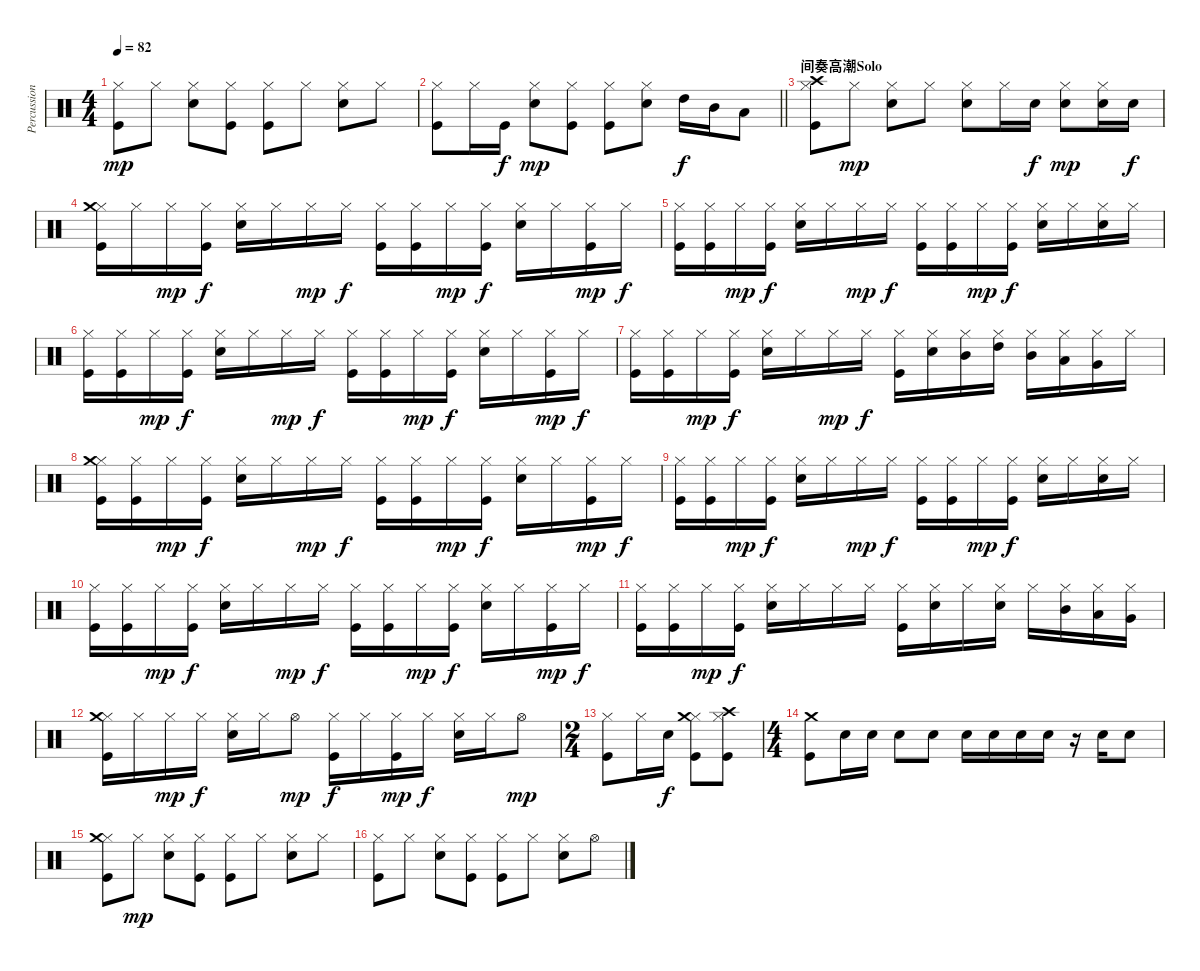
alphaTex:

\track ("Percussion" "Percussion") {instrument percussion}
\staff {score}
\articulation defaults
\ts (4 4)
\tempo 82
\clef neutral
\ks c
("Kick (hit)" "Hi-Hat (closed)").8{dy mp} "Hi-Hat (closed)".8 ("Electric Snare (hit)" "Hi-Hat (closed)").8 ("Kick (hit)" "Hi-Hat (closed)").8 ("Kick (hit)" "Hi-Hat (closed)").8 "Hi-Hat (closed)".8 ("Electric Snare (hit)" "Hi-Hat (closed)").8 "Hi-Hat (closed)".8 |
\barLineRight lightlight
("Kick (hit)" "Hi-Hat (closed)").8 "Hi-Hat (closed)".16 "Kick (hit)".16{dy f} ("Electric Snare (hit)" "Hi-Hat (closed)").8{dy mp} ("Kick (hit)" "Hi-Hat (closed)").8 ("Kick (hit)" "Hi-Hat (closed)").8 ("Electric Snare (hit)" "Hi-Hat (closed)").8 "High Tom (hit)".16{dy f} "Mid Tom (hit)".16 "Low Tom (hit)".8 |
\section ("" "间奏高潮Solo")
("Kick (hit)" "Hi-Hat (closed)" "Crash high (hit)").8 "Hi-Hat (closed)".8{dy mp} ("Electric Snare (hit)" "Hi-Hat (closed)").8 "Hi-Hat (closed)".8 ("Electric Snare (hit)" "Hi-Hat (closed)").8 "Hi-Hat (closed)".16 "Electric Snare (hit)".16{dy f} ("Electric Snare (hit)" "Hi-Hat (closed)").8{dy mp} ("Electric Snare (hit)" "Hi-Hat (closed)").16 "Electric Snare (hit)".16{dy f} |
("Kick (hit)" "Hi-Hat (closed)" "Crash medium (hit)").16 "Hi-Hat (closed)".16 "Hi-Hat (closed)".16{dy mp} ("Kick (hit)" "Hi-Hat (closed)").16{dy f} ("Electric Snare (hit)" "Hi-Hat (closed)").16 "Hi-Hat (closed)".16 "Hi-Hat (closed)".16{dy mp} "Hi-Hat (closed)".16{dy f} ("Kick (hit)" "Hi-Hat (closed)").16 ("Kick (hit)" "Hi-Hat (closed)").16 "Hi-Hat (closed)".16{dy mp} ("Kick (hit)" "Hi-Hat (closed)").16{dy f} ("Electric Snare (hit)" "Hi-Hat (closed)").16 "Hi-Hat (closed)".16 ("Kick (hit)" "Hi-Hat (closed)").16{dy mp} "Hi-Hat (closed)".16{dy f} |
("Kick (hit)" "Hi-Hat (closed)").16 ("Kick (hit)" "Hi-Hat (closed)").16 "Hi-Hat (closed)".16{dy mp} ("Kick (hit)" "Hi-Hat (closed)").16{dy f} ("Electric Snare (hit)" "Hi-Hat (closed)").16 "Hi-Hat (closed)".16 "Hi-Hat (closed)".16{dy mp} "Hi-Hat (closed)".16{dy f} ("Kick (hit)" "Hi-Hat (closed)").16 ("Kick (hit)" "Hi-Hat (closed)").16 "Hi-Hat (closed)".16{dy mp} ("Kick (hit)" "Hi-Hat (closed)").16{dy f} ("Electric Snare (hit)" "Hi-Hat (closed)").16 "Hi-Hat (closed)".16 ("Electric Snare (hit)" "Hi-Hat (closed)").16 "Hi-Hat (closed)".16 |
("Kick (hit)" "Hi-Hat (closed)").16 ("Kick (hit)" "Hi-Hat (closed)").16 "Hi-Hat (closed)".16{dy mp} ("Kick (hit)" "Hi-Hat (closed)").16{dy f} ("Electric Snare (hit)" "Hi-Hat (closed)").16 "Hi-Hat (closed)".16 "Hi-Hat (closed)".16{dy mp} "Hi-Hat (closed)".16{dy f} ("Kick (hit)" "Hi-Hat (closed)").16 ("Kick (hit)" "Hi-Hat (closed)").16 "Hi-Hat (closed)".16{dy mp} ("Kick (hit)" "Hi-Hat (closed)").16{dy f} ("Electric Snare (hit)" "Hi-Hat (closed)").16 "Hi-Hat (closed)".16 ("Kick (hit)" "Hi-Hat (closed)").16{dy mp} "Hi-Hat (closed)".16{dy f} |
("Kick (hit)" "Hi-Hat (closed)").16 ("Kick (hit)" "Hi-Hat (closed)").16 "Hi-Hat (closed)".16{dy mp} ("Kick (hit)" "Hi-Hat (closed)").16{dy f} ("Electric Snare (hit)" "Hi-Hat (closed)").16 "Hi-Hat (closed)".16 "Hi-Hat (closed)".16{dy mp} "Hi-Hat (closed)".16{dy f} ("Kick (hit)" "Hi-Hat (closed)").16 ("Electric Snare (hit)" "Hi-Hat (closed)").16 ("Mid Tom (hit)" "Hi-Hat (closed)").16 ("High Tom (hit)" "Hi-Hat (closed)").16 ("Mid Tom (hit)" "Hi-Hat (closed)").16 ("Low Tom (hit)" "Hi-Hat (closed)").16 ("Very Low Tom (hit)" "Hi-Hat (closed)").16 "Hi-Hat (closed)".16 |
("Kick (hit)" "Hi-Hat (closed)" "Crash medium (hit)").16 ("Kick (hit)" "Hi-Hat (closed)").16 "Hi-Hat (closed)".16{dy mp} ("Kick (hit)" "Hi-Hat (closed)").16{dy f} ("Electric Snare (hit)" "Hi-Hat (closed)").16 "Hi-Hat (closed)".16 "Hi-Hat (closed)".16{dy mp} "Hi-Hat (closed)".16{dy f} ("Kick (hit)" "Hi-Hat (closed)").16 ("Kick (hit)" "Hi-Hat (closed)").16 "Hi-Hat (closed)".16{dy mp} ("Kick (hit)" "Hi-Hat (closed)").16{dy f} ("Electric Snare (hit)" "Hi-Hat (closed)").16 "Hi-Hat (closed)".16 ("Kick (hit)" "Hi-Hat (closed)").16{dy mp} "Hi-Hat (closed)".16{dy f} |
("Kick (hit)" "Hi-Hat (closed)").16 ("Kick (hit)" "Hi-Hat (closed)").16 "Hi-Hat (closed)".16{dy mp} ("Kick (hit)" "Hi-Hat (closed)").16{dy f} ("Electric Snare (hit)" "Hi-Hat (closed)").16 "Hi-Hat (closed)".16 "Hi-Hat (closed)".16{dy mp} "Hi-Hat (closed)".16{dy f} ("Kick (hit)" "Hi-Hat (closed)").16 ("Kick (hit)" "Hi-Hat (closed)").16 "Hi-Hat (closed)".16{dy mp} ("Kick (hit)" "Hi-Hat (closed)").16{dy f} ("Electric Snare (hit)" "Hi-Hat (closed)").16 "Hi-Hat (closed)".16 ("Electric Snare (hit)" "Hi-Hat (closed)").16 "Hi-Hat (closed)".16 |
("Kick (hit)" "Hi-Hat (closed)").16 ("Kick (hit)" "Hi-Hat (closed)").16 "Hi-Hat (closed)".16{dy mp} ("Kick (hit)" "Hi-Hat (closed)").16{dy f} ("Electric Snare (hit)" "Hi-Hat (closed)").16 "Hi-Hat (closed)".16 "Hi-Hat (closed)".16{dy mp} "Hi-Hat (closed)".16{dy f} ("Kick (hit)" "Hi-Hat (closed)").16 ("Kick (hit)" "Hi-Hat (closed)").16 "Hi-Hat (closed)".16{dy mp} ("Kick (hit)" "Hi-Hat (closed)").16{dy f} ("Electric Snare (hit)" "Hi-Hat (closed)").16 "Hi-Hat (closed)".16 ("Kick (hit)" "Hi-Hat (closed)").16{dy mp} "Hi-Hat (closed)".16{dy f} |
("Kick (hit)" "Hi-Hat (closed)").16 ("Kick (hit)" "Hi-Hat (closed)").16 "Hi-Hat (closed)".16{dy mp} ("Kick (hit)" "Hi-Hat (closed)").16{dy f} ("Electric Snare (hit)" "Hi-Hat (closed)").16 "Hi-Hat (closed)".16 "Hi-Hat (closed)".16 "Hi-Hat (closed)".16 ("Kick (hit)" "Hi-Hat (closed)").16 ("Electric Snare (hit)" "Hi-Hat (closed)").16 "Hi-Hat (closed)".16 ("Electric Snare (hit)" "Hi-Hat (closed)").16 "Hi-Hat (closed)".16 ("Mid Tom (hit)" "Hi-Hat (closed)").16 ("Low Tom (hit)" "Hi-Hat (closed)").16 ("Very Low Tom (hit)" "Hi-Hat (closed)").16 |
("Kick (hit)" "Hi-Hat (closed)" "Crash medium (hit)").16 "Hi-Hat (closed)".16 "Hi-Hat (closed)".16{dy mp} "Hi-Hat (closed)".16{dy f} ("Electric Snare (hit)" "Hi-Hat (closed)").16 "Hi-Hat (closed)".16 "Hi-Hat (open)".8{dy mp} ("Kick (hit)" "Hi-Hat (closed)").16{dy f} "Hi-Hat (closed)".16 ("Kick (hit)" "Hi-Hat (closed)").16{dy mp} "Hi-Hat (closed)".16{dy f} ("Electric Snare (hit)" "Hi-Hat (closed)").16 "Hi-Hat (closed)".16 "Hi-Hat (open)".8{dy mp} |
\ts (2 4)
("Kick (hit)" "Hi-Hat (closed)").8 "Hi-Hat (closed)".16 "Electric Snare (hit)".16{dy f} ("Kick (hit)" "Hi-Hat (closed)" "Crash medium (hit)").8 ("Kick (hit)" "Hi-Hat (closed)" "Crash high (hit)").8 |
\ts (4 4)
("Kick (hit)" "Crash medium (hit)").8 "Electric Snare (hit)".16 "Electric Snare (hit)".16 "Electric Snare (hit)".8 "Electric Snare (hit)".8 "Electric Snare (hit)".16 "Electric Snare (hit)".16 "Electric Snare (hit)".16 "Electric Snare (hit)".16 r.16 "Electric Snare (hit)".16 "Electric Snare (hit)".8 |
("Kick (hit)" "Hi-Hat (closed)" "Crash medium (hit)").8 "Hi-Hat (closed)".8{dy mp} ("Electric Snare (hit)" "Hi-Hat (closed)").8 ("Kick (hit)" "Hi-Hat (closed)").8 ("Kick (hit)" "Hi-Hat (closed)").8 "Hi-Hat (closed)".8 ("Electric Snare (hit)" "Hi-Hat (closed)").8 "Hi-Hat (closed)".8 |
("Kick (hit)" "Hi-Hat (closed)").8 "Hi-Hat (closed)".8 ("Electric Snare (hit)" "Hi-Hat (closed)").8 ("Kick (hit)" "Hi-Hat (closed)").8 ("Kick (hit)" "Hi-Hat (closed)").8 "Hi-Hat (closed)".8 ("Electric Snare (hit)" "Hi-Hat (closed)").8 "Hi-Hat (open)".8
